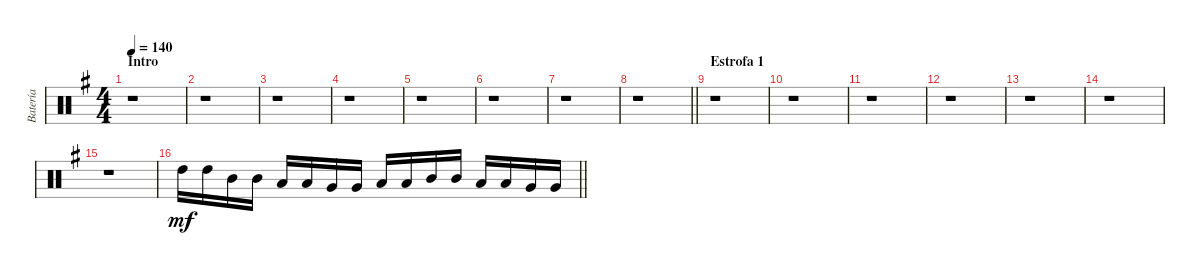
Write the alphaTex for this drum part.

\track ("Batería" "Batería") {instrument percussion}
\staff {score}
\articulation defaults
\ts (4 4)
\section ("" "Intro")
\tempo 140
\clef neutral
\ks g
r.1{dy mf} |
r.1 |
r.1 |
r.1 |
r.1 |
r.1 |
r.1 |
\barLineRight lightlight
r.1 |
\section ("" "Estrofa 1")
r.1 |
r.1 |
r.1 |
r.1 |
r.1 |
r.1 |
r.1 |
\barLineRight lightlight "High Tom (hit)".16 "High Tom (hit)".16 "Mid Tom (hit)".16 "Mid Tom (hit)".16 "Low Tom (hit)".16 "Low Tom (hit)".16 "Very Low Tom (hit)".16 "Very Low Tom (hit)".16 "Low Floor Tom (hit)".16 "Low Floor Tom (hit)".16 "Mid Tom (hit)".16 "Mid Tom (hit)".16 "Low Tom (hit)".16 "Low Tom (hit)".16 "Very Low Tom (hit)".16 "Very Low Tom (hit)".16
